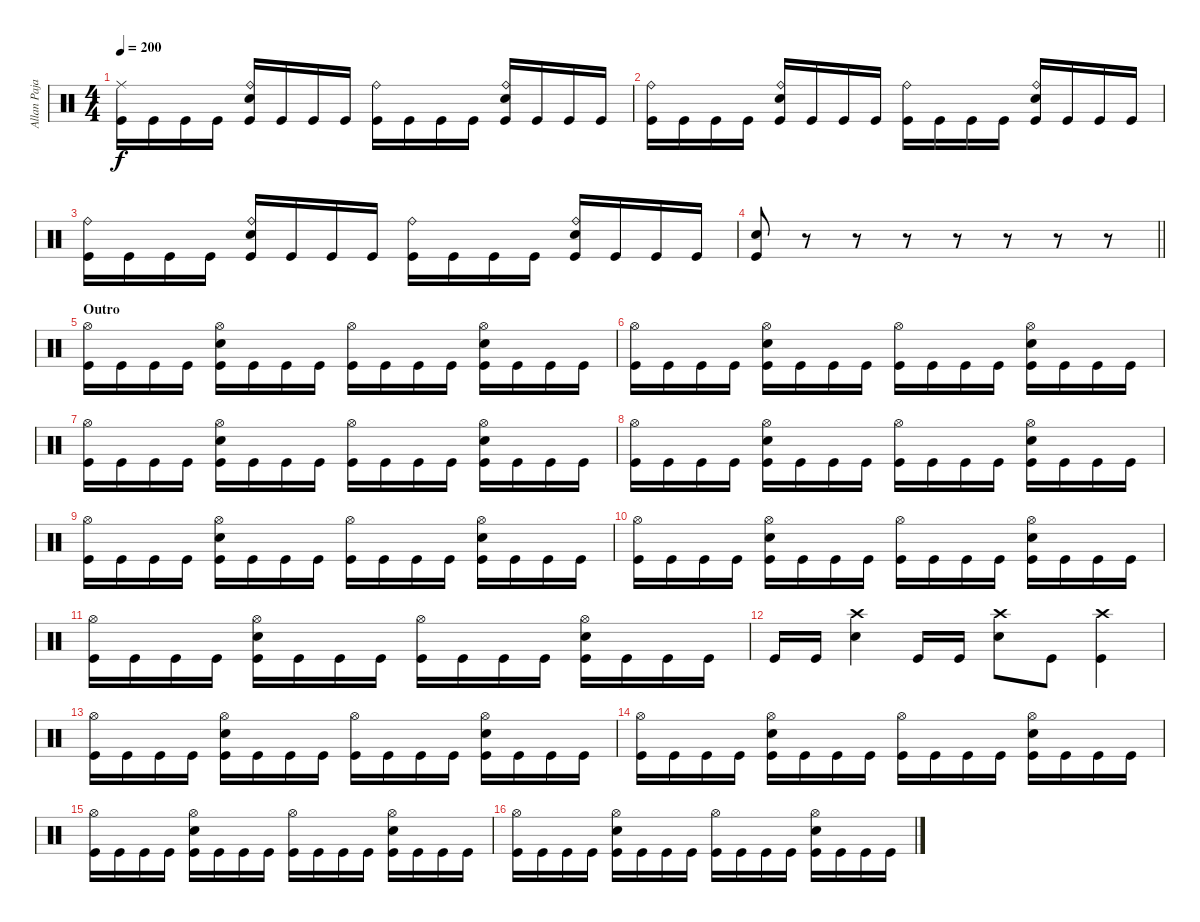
\track ("Allan Pajarin (Drums)" "Allan Paja") {instrument percussion}
\staff {score}
\articulation defaults
\ts (4 4)
\tempo 200
\clef neutral
\ks c
("Ride (middle)" "Kick (hit)").16{dy f} "Kick (hit)".16 "Kick (hit)".16 "Kick (hit)".16 ("Ride (bell)" "Electric Snare (hit)" "Kick (hit)").16 "Kick (hit)".16 "Kick (hit)".16 "Kick (hit)".16 ("Ride (bell)" "Kick (hit)").16 "Kick (hit)".16 "Kick (hit)".16 "Kick (hit)".16 ("Ride (bell)" "Electric Snare (hit)" "Kick (hit)").16 "Kick (hit)".16 "Kick (hit)".16 "Kick (hit)".16 |
("Ride (bell)" "Kick (hit)").16 "Kick (hit)".16 "Kick (hit)".16 "Kick (hit)".16 ("Ride (bell)" "Electric Snare (hit)" "Kick (hit)").16 "Kick (hit)".16 "Kick (hit)".16 "Kick (hit)".16 ("Ride (bell)" "Kick (hit)").16 "Kick (hit)".16 "Kick (hit)".16 "Kick (hit)".16 ("Ride (bell)" "Electric Snare (hit)" "Kick (hit)").16 "Kick (hit)".16 "Kick (hit)".16 "Kick (hit)".16 |
("Ride (bell)" "Kick (hit)").16 "Kick (hit)".16 "Kick (hit)".16 "Kick (hit)".16 ("Ride (bell)" "Electric Snare (hit)" "Kick (hit)").16 "Kick (hit)".16 "Kick (hit)".16 "Kick (hit)".16 ("Ride (bell)" "Kick (hit)").16 "Kick (hit)".16 "Kick (hit)".16 "Kick (hit)".16 ("Ride (bell)" "Electric Snare (hit)" "Kick (hit)").16 "Kick (hit)".16 "Kick (hit)".16 "Kick (hit)".16 |
\barLineRight lightlight
("Electric Snare (hit)" "Kick (hit)").8 r.8 r.8 r.8 r.8 r.8 r.8 r.8 |
\section ("" "Outro")
("Kick (hit)" "Hi-Hat (open)").16 "Kick (hit)".16 "Kick (hit)".16 "Kick (hit)".16 ("Hi-Hat (open)" "Electric Snare (hit)" "Kick (hit)").16 "Kick (hit)".16 "Kick (hit)".16 "Kick (hit)".16 ("Hi-Hat (open)" "Kick (hit)").16 "Kick (hit)".16 "Kick (hit)".16 "Kick (hit)".16 ("Hi-Hat (open)" "Electric Snare (hit)" "Kick (hit)").16 "Kick (hit)".16 "Kick (hit)".16 "Kick (hit)".16 |
("Kick (hit)" "Hi-Hat (open)").16 "Kick (hit)".16 "Kick (hit)".16 "Kick (hit)".16 ("Hi-Hat (open)" "Electric Snare (hit)" "Kick (hit)").16 "Kick (hit)".16 "Kick (hit)".16 "Kick (hit)".16 ("Hi-Hat (open)" "Kick (hit)").16 "Kick (hit)".16 "Kick (hit)".16 "Kick (hit)".16 ("Hi-Hat (open)" "Electric Snare (hit)" "Kick (hit)").16 "Kick (hit)".16 "Kick (hit)".16 "Kick (hit)".16 |
("Kick (hit)" "Hi-Hat (open)").16 "Kick (hit)".16 "Kick (hit)".16 "Kick (hit)".16 ("Hi-Hat (open)" "Electric Snare (hit)" "Kick (hit)").16 "Kick (hit)".16 "Kick (hit)".16 "Kick (hit)".16 ("Hi-Hat (open)" "Kick (hit)").16 "Kick (hit)".16 "Kick (hit)".16 "Kick (hit)".16 ("Hi-Hat (open)" "Electric Snare (hit)" "Kick (hit)").16 "Kick (hit)".16 "Kick (hit)".16 "Kick (hit)".16 |
("Kick (hit)" "Hi-Hat (open)").16 "Kick (hit)".16 "Kick (hit)".16 "Kick (hit)".16 ("Hi-Hat (open)" "Electric Snare (hit)" "Kick (hit)").16 "Kick (hit)".16 "Kick (hit)".16 "Kick (hit)".16 ("Hi-Hat (open)" "Kick (hit)").16 "Kick (hit)".16 "Kick (hit)".16 "Kick (hit)".16 ("Hi-Hat (open)" "Electric Snare (hit)" "Kick (hit)").16 "Kick (hit)".16 "Kick (hit)".16 "Kick (hit)".16 |
("Kick (hit)" "Hi-Hat (open)").16 "Kick (hit)".16 "Kick (hit)".16 "Kick (hit)".16 ("Hi-Hat (open)" "Electric Snare (hit)" "Kick (hit)").16 "Kick (hit)".16 "Kick (hit)".16 "Kick (hit)".16 ("Hi-Hat (open)" "Kick (hit)").16 "Kick (hit)".16 "Kick (hit)".16 "Kick (hit)".16 ("Hi-Hat (open)" "Electric Snare (hit)" "Kick (hit)").16 "Kick (hit)".16 "Kick (hit)".16 "Kick (hit)".16 |
("Kick (hit)" "Hi-Hat (open)").16 "Kick (hit)".16 "Kick (hit)".16 "Kick (hit)".16 ("Hi-Hat (open)" "Electric Snare (hit)" "Kick (hit)").16 "Kick (hit)".16 "Kick (hit)".16 "Kick (hit)".16 ("Hi-Hat (open)" "Kick (hit)").16 "Kick (hit)".16 "Kick (hit)".16 "Kick (hit)".16 ("Hi-Hat (open)" "Electric Snare (hit)" "Kick (hit)").16 "Kick (hit)".16 "Kick (hit)".16 "Kick (hit)".16 |
("Kick (hit)" "Hi-Hat (open)").16 "Kick (hit)".16 "Kick (hit)".16 "Kick (hit)".16 ("Hi-Hat (open)" "Electric Snare (hit)" "Kick (hit)").16 "Kick (hit)".16 "Kick (hit)".16 "Kick (hit)".16 ("Hi-Hat (open)" "Kick (hit)").16 "Kick (hit)".16 "Kick (hit)".16 "Kick (hit)".16 ("Hi-Hat (open)" "Electric Snare (hit)" "Kick (hit)").16 "Kick (hit)".16 "Kick (hit)".16 "Kick (hit)".16 |
"Kick (hit)".16 "Kick (hit)".16 ("Crash high (hit)" "Electric Snare (hit)").4 "Kick (hit)".16 "Kick (hit)".16 ("Crash high (hit)" "Electric Snare (hit)").8 "Kick (hit)".8 ("Crash high (hit)" "Kick (hit)").4 |
("Kick (hit)" "Hi-Hat (open)").16 "Kick (hit)".16 "Kick (hit)".16 "Kick (hit)".16 ("Hi-Hat (open)" "Electric Snare (hit)" "Kick (hit)").16 "Kick (hit)".16 "Kick (hit)".16 "Kick (hit)".16 ("Hi-Hat (open)" "Kick (hit)").16 "Kick (hit)".16 "Kick (hit)".16 "Kick (hit)".16 ("Hi-Hat (open)" "Electric Snare (hit)" "Kick (hit)").16 "Kick (hit)".16 "Kick (hit)".16 "Kick (hit)".16 |
("Kick (hit)" "Hi-Hat (open)").16 "Kick (hit)".16 "Kick (hit)".16 "Kick (hit)".16 ("Hi-Hat (open)" "Electric Snare (hit)" "Kick (hit)").16 "Kick (hit)".16 "Kick (hit)".16 "Kick (hit)".16 ("Hi-Hat (open)" "Kick (hit)").16 "Kick (hit)".16 "Kick (hit)".16 "Kick (hit)".16 ("Hi-Hat (open)" "Electric Snare (hit)" "Kick (hit)").16 "Kick (hit)".16 "Kick (hit)".16 "Kick (hit)".16 |
("Kick (hit)" "Hi-Hat (open)").16 "Kick (hit)".16 "Kick (hit)".16 "Kick (hit)".16 ("Hi-Hat (open)" "Electric Snare (hit)" "Kick (hit)").16 "Kick (hit)".16 "Kick (hit)".16 "Kick (hit)".16 ("Hi-Hat (open)" "Kick (hit)").16 "Kick (hit)".16 "Kick (hit)".16 "Kick (hit)".16 ("Hi-Hat (open)" "Electric Snare (hit)" "Kick (hit)").16 "Kick (hit)".16 "Kick (hit)".16 "Kick (hit)".16 |
("Kick (hit)" "Hi-Hat (open)").16 "Kick (hit)".16 "Kick (hit)".16 "Kick (hit)".16 ("Hi-Hat (open)" "Electric Snare (hit)" "Kick (hit)").16 "Kick (hit)".16 "Kick (hit)".16 "Kick (hit)".16 ("Hi-Hat (open)" "Kick (hit)").16 "Kick (hit)".16 "Kick (hit)".16 "Kick (hit)".16 ("Hi-Hat (open)" "Electric Snare (hit)" "Kick (hit)").16 "Kick (hit)".16 "Kick (hit)".16 "Kick (hit)".16
